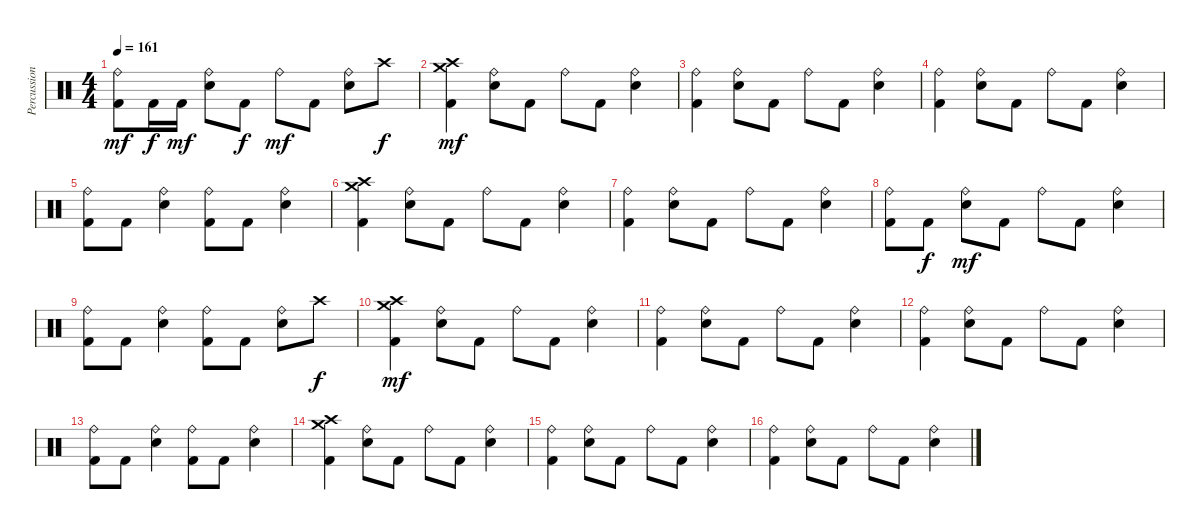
\track ("Percussion" "Percussion") {instrument percussion}
\staff {score}
\articulation defaults
\ts (4 4)
\tempo 161
\clef neutral
\ks c
("Ride (bell)" "Kick (hit) 2").8{dy mf} "Kick (hit) 2".16{dy f} "Kick (hit) 2".16{dy mf} ("Ride (bell)" "Electric Snare (hit)").8 "Kick (hit) 2".8{dy f} "Ride (bell)".8{dy mf} "Kick (hit) 2".8 ("Ride (bell)" "Electric Snare (hit)").8 "Crash high (hit)".8{dy f} |
("Crash medium (hit)" "Crash high (hit)" "Kick (hit) 2").4{dy mf} ("Ride (bell)" "Electric Snare (hit)").8 "Kick (hit) 2".8 "Ride (bell)".8 "Kick (hit) 2".8 ("Ride (bell)" "Electric Snare (hit)").4 |
("Ride (bell)" "Kick (hit) 2").4 ("Ride (bell)" "Electric Snare (hit)").8 "Kick (hit) 2".8 "Ride (bell)".8 "Kick (hit) 2".8 ("Ride (bell)" "Electric Snare (hit)").4 |
("Ride (bell)" "Kick (hit) 2").4 ("Ride (bell)" "Electric Snare (hit)").8 "Kick (hit) 2".8 "Ride (bell)".8 "Kick (hit) 2".8 ("Ride (bell)" "Electric Snare (hit)").4 |
("Ride (bell)" "Kick (hit) 2").8 "Kick (hit) 2".8 ("Ride (bell)" "Electric Snare (hit)").4 ("Ride (bell)" "Kick (hit) 2").8 "Kick (hit) 2".8 ("Ride (bell)" "Electric Snare (hit)").4 |
("Crash medium (hit)" "Crash high (hit)" "Kick (hit) 2").4 ("Ride (bell)" "Electric Snare (hit)").8 "Kick (hit) 2".8 "Ride (bell)".8 "Kick (hit) 2".8 ("Ride (bell)" "Electric Snare (hit)").4 |
("Ride (bell)" "Kick (hit) 2").4 ("Ride (bell)" "Electric Snare (hit)").8 "Kick (hit) 2".8 "Ride (bell)".8 "Kick (hit) 2".8 ("Ride (bell)" "Electric Snare (hit)").4 |
("Ride (bell)" "Kick (hit) 2").8 "Kick (hit) 2".8{dy f} ("Ride (bell)" "Electric Snare (hit)").8{dy mf} "Kick (hit) 2".8 "Ride (bell)".8 "Kick (hit) 2".8 ("Ride (bell)" "Electric Snare (hit)").4 |
("Ride (bell)" "Kick (hit) 2").8 "Kick (hit) 2".8 ("Ride (bell)" "Electric Snare (hit)").4 ("Ride (bell)" "Kick (hit) 2").8 "Kick (hit) 2".8 ("Ride (bell)" "Electric Snare (hit)").8 "Crash high (hit)".8{dy f} |
("Crash medium (hit)" "Crash high (hit)" "Kick (hit) 2").4{dy mf} ("Ride (bell)" "Electric Snare (hit)").8 "Kick (hit) 2".8 "Ride (bell)".8 "Kick (hit) 2".8 ("Ride (bell)" "Electric Snare (hit)").4 |
("Ride (bell)" "Kick (hit) 2").4 ("Ride (bell)" "Electric Snare (hit)").8 "Kick (hit) 2".8 "Ride (bell)".8 "Kick (hit) 2".8 ("Ride (bell)" "Electric Snare (hit)").4 |
("Ride (bell)" "Kick (hit) 2").4 ("Ride (bell)" "Electric Snare (hit)").8 "Kick (hit) 2".8 "Ride (bell)".8 "Kick (hit) 2".8 ("Ride (bell)" "Electric Snare (hit)").4 |
("Ride (bell)" "Kick (hit) 2").8 "Kick (hit) 2".8 ("Ride (bell)" "Electric Snare (hit)").4 ("Ride (bell)" "Kick (hit) 2").8 "Kick (hit) 2".8 ("Ride (bell)" "Electric Snare (hit)").4 |
("Crash medium (hit)" "Crash high (hit)" "Kick (hit) 2").4 ("Ride (bell)" "Electric Snare (hit)").8 "Kick (hit) 2".8 "Ride (bell)".8 "Kick (hit) 2".8 ("Ride (bell)" "Electric Snare (hit)").4 |
("Ride (bell)" "Kick (hit) 2").4 ("Ride (bell)" "Electric Snare (hit)").8 "Kick (hit) 2".8 "Ride (bell)".8 "Kick (hit) 2".8 ("Ride (bell)" "Electric Snare (hit)").4 |
("Ride (bell)" "Kick (hit) 2").4 ("Ride (bell)" "Electric Snare (hit)").8 "Kick (hit) 2".8 "Ride (bell)".8 "Kick (hit) 2".8 ("Ride (bell)" "Electric Snare (hit)").4
